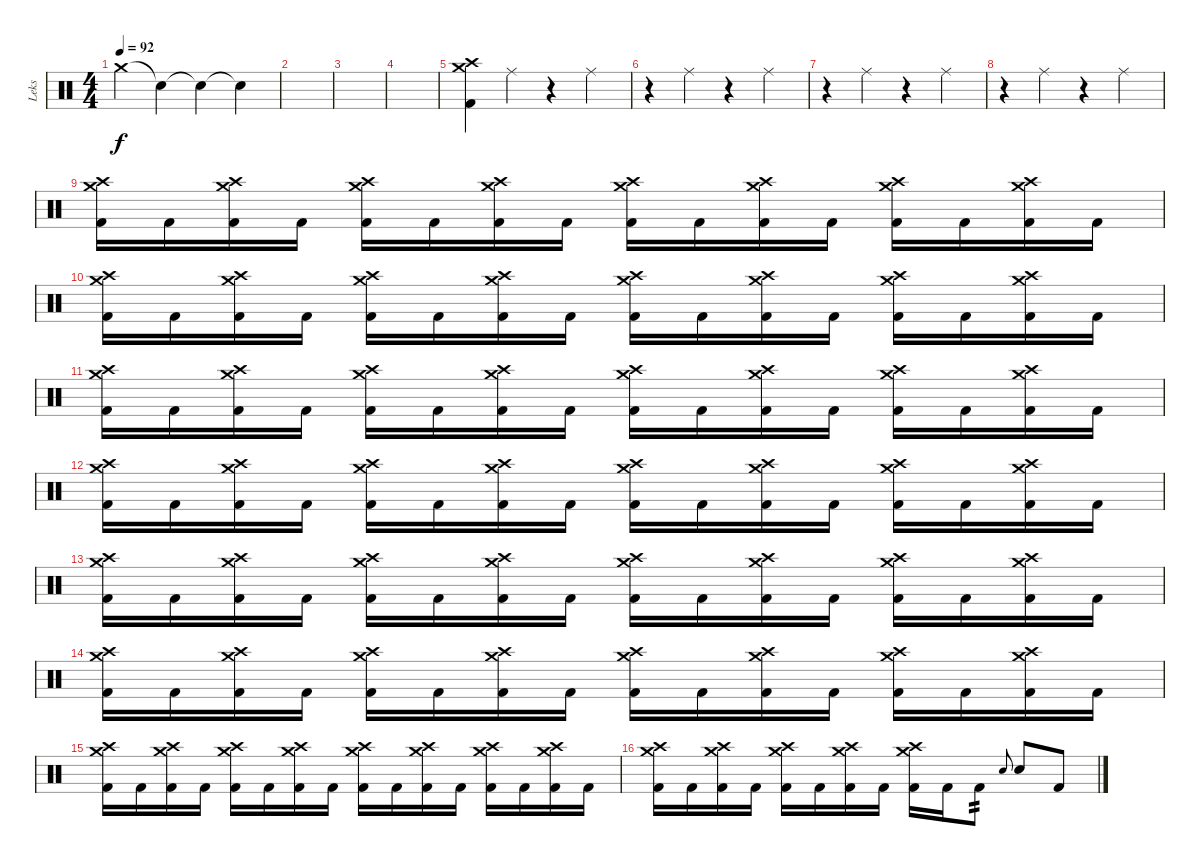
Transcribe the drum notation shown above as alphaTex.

\track ("Leks" "Leks") {instrument percussion}
\staff {score}
\articulation defaults
\ts (4 4)
\tempo 92
\clef neutral
\ks c "Crash medium (hit)"{t}.4{dy f} "Snare (hit)"{t}.4 "Snare (hit)"{t}.4 "Snare (hit)"{t}.4
|
|
|
|
("Crash medium (hit)" "Crash high (hit)" "Kick (hit) 2").4 "Ride (middle)".4 r.4 "Ride (middle)".4 |
r.4 "Ride (middle)".4 r.4 "Ride (middle)".4 |
r.4 "Ride (middle)".4 r.4 "Ride (middle)".4 |
r.4 "Ride (middle)".4 r.4 "Ride (middle)".4 |
("Crash high (hit)" "Crash medium (hit)" "Kick (hit) 2").16 "Kick (hit) 2".16 ("Crash high (hit)" "Crash medium (hit)" "Kick (hit) 2").16 "Kick (hit) 2".16 ("Crash high (hit)" "Crash medium (hit)" "Kick (hit) 2").16 "Kick (hit) 2".16 ("Crash high (hit)" "Crash medium (hit)" "Kick (hit) 2").16 "Kick (hit) 2".16 ("Crash high (hit)" "Crash medium (hit)" "Kick (hit) 2").16 "Kick (hit) 2".16 ("Crash high (hit)" "Crash medium (hit)" "Kick (hit) 2").16 "Kick (hit) 2".16 ("Crash high (hit)" "Crash medium (hit)" "Kick (hit) 2").16 "Kick (hit) 2".16 ("Crash high (hit)" "Crash medium (hit)" "Kick (hit) 2").16 "Kick (hit) 2".16 |
("Crash high (hit)" "Crash medium (hit)" "Kick (hit) 2").16 "Kick (hit) 2".16 ("Crash high (hit)" "Crash medium (hit)" "Kick (hit) 2").16 "Kick (hit) 2".16 ("Crash high (hit)" "Crash medium (hit)" "Kick (hit) 2").16 "Kick (hit) 2".16 ("Crash high (hit)" "Crash medium (hit)" "Kick (hit) 2").16 "Kick (hit) 2".16 ("Crash high (hit)" "Crash medium (hit)" "Kick (hit) 2").16 "Kick (hit) 2".16 ("Crash high (hit)" "Crash medium (hit)" "Kick (hit) 2").16 "Kick (hit) 2".16 ("Crash high (hit)" "Crash medium (hit)" "Kick (hit) 2").16 "Kick (hit) 2".16 ("Crash high (hit)" "Crash medium (hit)" "Kick (hit) 2").16 "Kick (hit) 2".16 |
("Crash high (hit)" "Crash medium (hit)" "Kick (hit) 2").16 "Kick (hit) 2".16 ("Crash high (hit)" "Crash medium (hit)" "Kick (hit) 2").16 "Kick (hit) 2".16 ("Crash high (hit)" "Crash medium (hit)" "Kick (hit) 2").16 "Kick (hit) 2".16 ("Crash high (hit)" "Crash medium (hit)" "Kick (hit) 2").16 "Kick (hit) 2".16 ("Crash high (hit)" "Crash medium (hit)" "Kick (hit) 2").16 "Kick (hit) 2".16 ("Crash high (hit)" "Crash medium (hit)" "Kick (hit) 2").16 "Kick (hit) 2".16 ("Crash high (hit)" "Crash medium (hit)" "Kick (hit) 2").16 "Kick (hit) 2".16 ("Crash high (hit)" "Crash medium (hit)" "Kick (hit) 2").16 "Kick (hit) 2".16 |
("Crash high (hit)" "Crash medium (hit)" "Kick (hit) 2").16 "Kick (hit) 2".16 ("Crash high (hit)" "Crash medium (hit)" "Kick (hit) 2").16 "Kick (hit) 2".16 ("Crash high (hit)" "Crash medium (hit)" "Kick (hit) 2").16 "Kick (hit) 2".16 ("Crash high (hit)" "Crash medium (hit)" "Kick (hit) 2").16 "Kick (hit) 2".16 ("Crash high (hit)" "Crash medium (hit)" "Kick (hit) 2").16 "Kick (hit) 2".16 ("Crash high (hit)" "Crash medium (hit)" "Kick (hit) 2").16 "Kick (hit) 2".16 ("Crash high (hit)" "Crash medium (hit)" "Kick (hit) 2").16 "Kick (hit) 2".16 ("Crash high (hit)" "Crash medium (hit)" "Kick (hit) 2").16 "Kick (hit) 2".16 |
("Crash high (hit)" "Crash medium (hit)" "Kick (hit) 2").16 "Kick (hit) 2".16 ("Crash high (hit)" "Crash medium (hit)" "Kick (hit) 2").16 "Kick (hit) 2".16 ("Crash high (hit)" "Crash medium (hit)" "Kick (hit) 2").16 "Kick (hit) 2".16 ("Crash high (hit)" "Crash medium (hit)" "Kick (hit) 2").16 "Kick (hit) 2".16 ("Crash high (hit)" "Crash medium (hit)" "Kick (hit) 2").16 "Kick (hit) 2".16 ("Crash high (hit)" "Crash medium (hit)" "Kick (hit) 2").16 "Kick (hit) 2".16 ("Crash high (hit)" "Crash medium (hit)" "Kick (hit) 2").16 "Kick (hit) 2".16 ("Crash high (hit)" "Crash medium (hit)" "Kick (hit) 2").16 "Kick (hit) 2".16 |
("Crash high (hit)" "Crash medium (hit)" "Kick (hit) 2").16 "Kick (hit) 2".16 ("Crash high (hit)" "Crash medium (hit)" "Kick (hit) 2").16 "Kick (hit) 2".16 ("Crash high (hit)" "Crash medium (hit)" "Kick (hit) 2").16 "Kick (hit) 2".16 ("Crash high (hit)" "Crash medium (hit)" "Kick (hit) 2").16 "Kick (hit) 2".16 ("Crash high (hit)" "Crash medium (hit)" "Kick (hit) 2").16 "Kick (hit) 2".16 ("Crash high (hit)" "Crash medium (hit)" "Kick (hit) 2").16 "Kick (hit) 2".16 ("Crash high (hit)" "Crash medium (hit)" "Kick (hit) 2").16 "Kick (hit) 2".16 ("Crash high (hit)" "Crash medium (hit)" "Kick (hit) 2").16 "Kick (hit) 2".16 |
("Crash high (hit)" "Crash medium (hit)" "Kick (hit) 2").16 "Kick (hit) 2".16 ("Crash high (hit)" "Crash medium (hit)" "Kick (hit) 2").16 "Kick (hit) 2".16 ("Crash high (hit)" "Crash medium (hit)" "Kick (hit) 2").16 "Kick (hit) 2".16 ("Crash high (hit)" "Crash medium (hit)" "Kick (hit) 2").16 "Kick (hit) 2".16 ("Crash high (hit)" "Crash medium (hit)" "Kick (hit) 2").16 "Kick (hit) 2".16 ("Crash high (hit)" "Crash medium (hit)" "Kick (hit) 2").16 "Kick (hit) 2".16 ("Crash high (hit)" "Crash medium (hit)" "Kick (hit) 2").16 "Kick (hit) 2".16 ("Crash high (hit)" "Crash medium (hit)" "Kick (hit) 2").16 "Kick (hit) 2".16 |
("Crash high (hit)" "Crash medium (hit)" "Kick (hit) 2").16 "Kick (hit) 2".16 ("Crash high (hit)" "Crash medium (hit)" "Kick (hit) 2").16 "Kick (hit) 2".16 ("Crash high (hit)" "Crash medium (hit)" "Kick (hit) 2").16 "Kick (hit) 2".16 ("Crash high (hit)" "Crash medium (hit)" "Kick (hit) 2").16 "Kick (hit) 2".16 ("Crash high (hit)" "Crash medium (hit)" "Kick (hit) 2").16 "Kick (hit) 2".16 "Kick (hit) 2".8{tp 2} "Snare (hit) 2".8{gr onbeat} "Snare (hit) 2".8 "Kick (hit) 2".8
